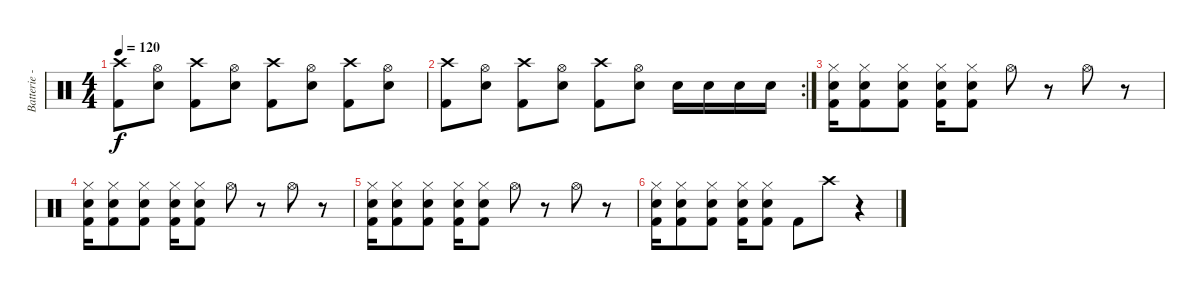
\track ("Batterie - Joe" "Batterie -") {instrument percussion}
\staff {score}
\articulation defaults
\ts (4 4)
\tempo 120
\clef neutral
\ks c
("Crash high (hit)" "Kick (hit) 2").8{dy f} ("Hi-Hat (open)" "Electric Snare (hit)").8 ("Crash high (hit)" "Kick (hit) 2").8 ("Hi-Hat (open)" "Electric Snare (hit)").8 ("Crash high (hit)" "Kick (hit) 2").8 ("Hi-Hat (open)" "Electric Snare (hit)").8 ("Crash high (hit)" "Kick (hit) 2").8 ("Hi-Hat (open)" "Electric Snare (hit)").8 |
\rc 2
("Crash high (hit)" "Kick (hit) 2").8 ("Hi-Hat (open)" "Electric Snare (hit)").8 ("Crash high (hit)" "Kick (hit) 2").8 ("Hi-Hat (open)" "Electric Snare (hit)").8 ("Crash high (hit)" "Kick (hit) 2").8 ("Hi-Hat (open)" "Electric Snare (hit)").8 "Electric Snare (hit)".16 "Electric Snare (hit)".16 "Electric Snare (hit)".16 "Electric Snare (hit)".16 |
("Hi-Hat (closed)" "Electric Snare (hit)" "Kick (hit) 2").16 ("Hi-Hat (closed)" "Electric Snare (hit)" "Kick (hit) 2").8 ("Hi-Hat (closed)" "Electric Snare (hit)" "Kick (hit) 2").8 ("Hi-Hat (closed)" "Electric Snare (hit)" "Kick (hit) 2").16 ("Hi-Hat (closed)" "Electric Snare (hit)" "Kick (hit) 2").8 "Hi-Hat (open)".8 r.8 "Hi-Hat (open)".8 r.8 |
("Hi-Hat (closed)" "Electric Snare (hit)" "Kick (hit) 2").16 ("Hi-Hat (closed)" "Electric Snare (hit)" "Kick (hit) 2").8 ("Hi-Hat (closed)" "Electric Snare (hit)" "Kick (hit) 2").8 ("Hi-Hat (closed)" "Electric Snare (hit)" "Kick (hit) 2").16 ("Hi-Hat (closed)" "Electric Snare (hit)" "Kick (hit) 2").8 "Hi-Hat (open)".8 r.8 "Hi-Hat (open)".8 r.8 |
("Hi-Hat (closed)" "Electric Snare (hit)" "Kick (hit) 2").16 ("Hi-Hat (closed)" "Electric Snare (hit)" "Kick (hit) 2").8 ("Hi-Hat (closed)" "Electric Snare (hit)" "Kick (hit) 2").8 ("Hi-Hat (closed)" "Electric Snare (hit)" "Kick (hit) 2").16 ("Hi-Hat (closed)" "Electric Snare (hit)" "Kick (hit) 2").8 "Hi-Hat (open)".8 r.8 "Hi-Hat (open)".8 r.8 |
("Hi-Hat (closed)" "Electric Snare (hit)" "Kick (hit) 2").16 ("Hi-Hat (closed)" "Electric Snare (hit)" "Kick (hit) 2").8 ("Hi-Hat (closed)" "Electric Snare (hit)" "Kick (hit) 2").8 ("Hi-Hat (closed)" "Electric Snare (hit)" "Kick (hit) 2").16 ("Hi-Hat (closed)" "Electric Snare (hit)" "Kick (hit) 2").8 "Kick (hit) 2".8 "Crash high (hit)".8 r.4
